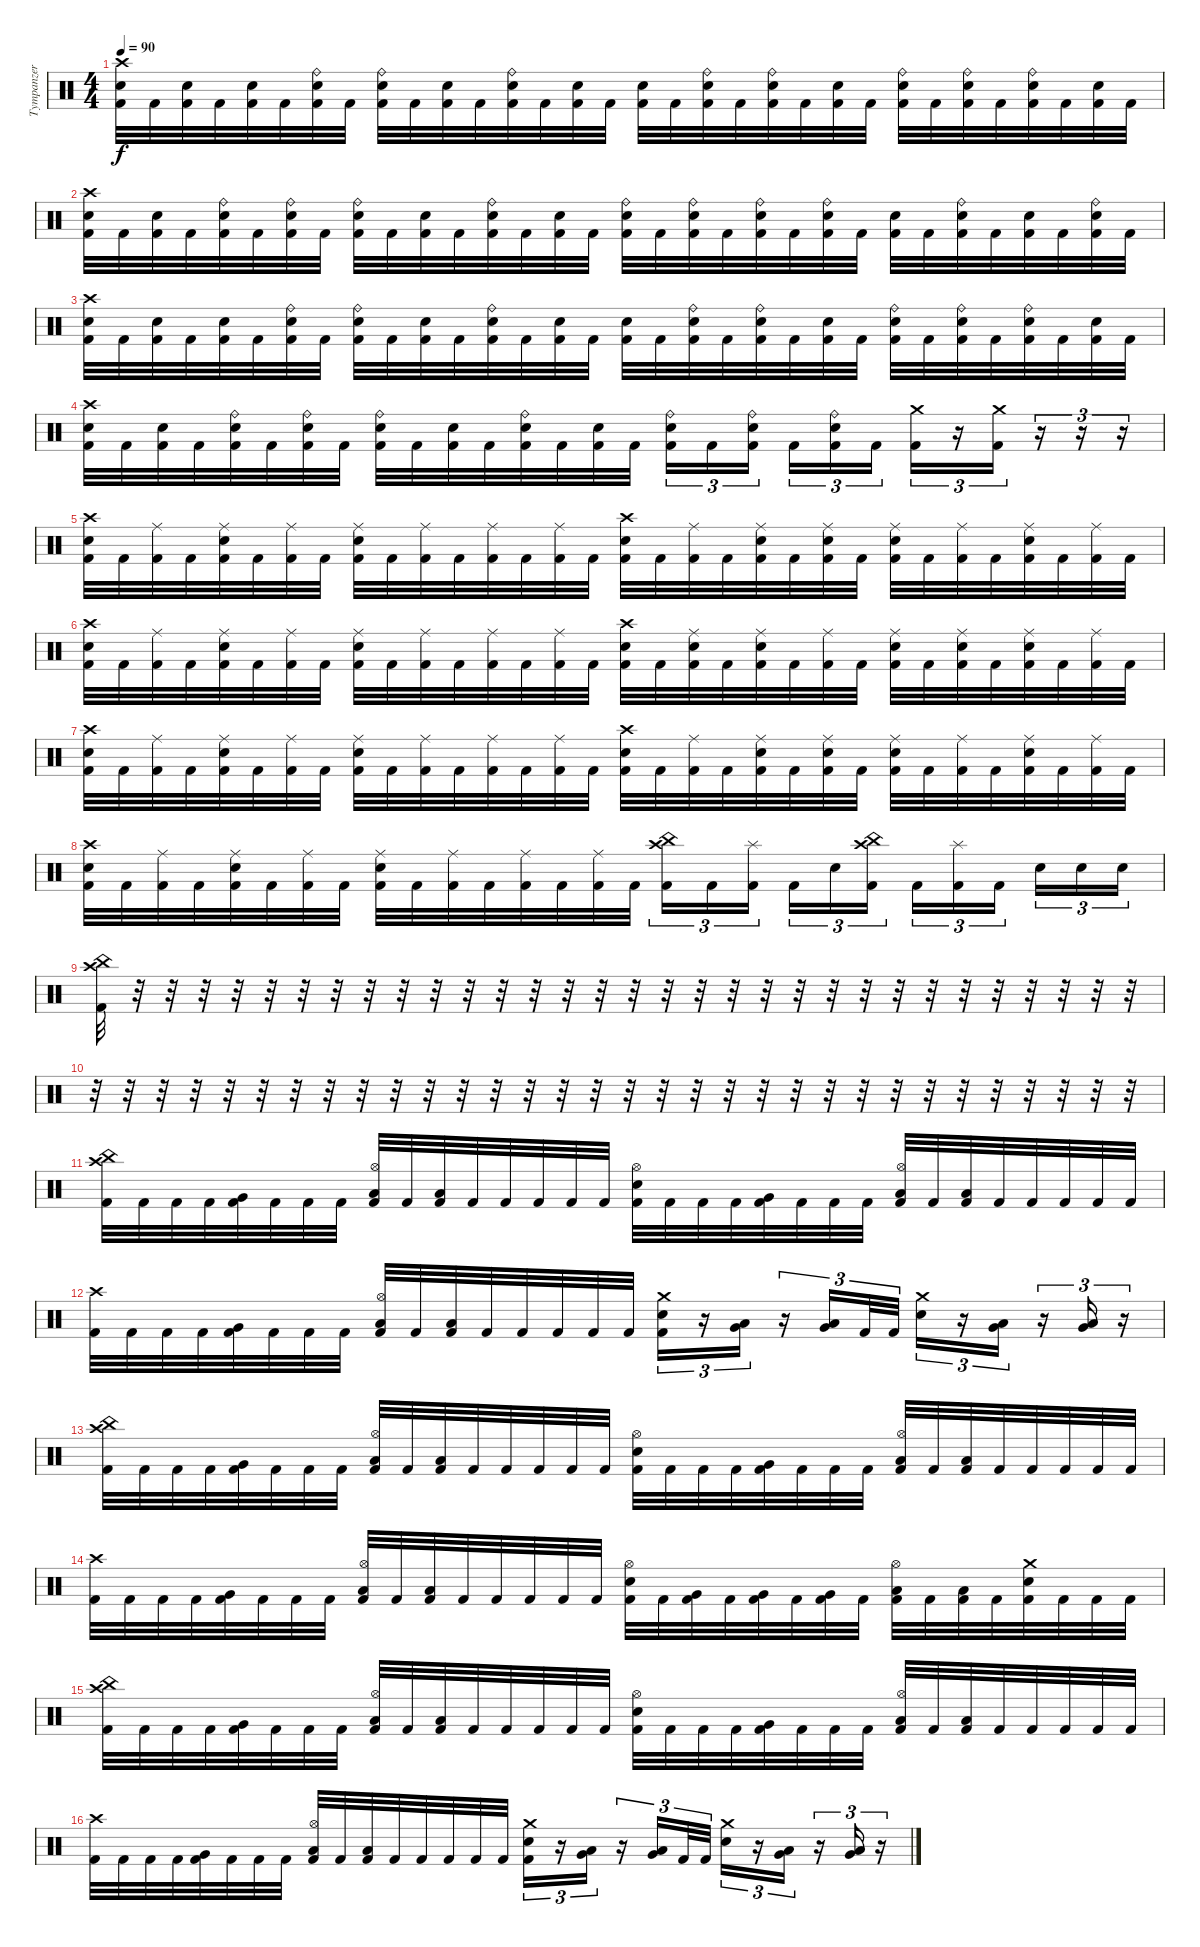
\track ("Tympanzer" "Tympanzer") {instrument percussion}
\staff {score}
\articulation defaults
\ts (4 4)
\tempo 90
\clef neutral
\ks c
("Crash high (hit)" "Electric Snare (hit)" "Kick (hit) 2").32{dy f} "Kick (hit) 2".32 ("Electric Snare (hit)" "Kick (hit) 2").32 "Kick (hit) 2".32 ("Electric Snare (hit)" "Kick (hit) 2").32 "Kick (hit) 2".32 ("Ride (bell)" "Electric Snare (hit)" "Kick (hit) 2").32 "Kick (hit) 2".32 ("Ride (bell)" "Electric Snare (hit)" "Kick (hit) 2").32 "Kick (hit) 2".32 ("Electric Snare (hit)" "Kick (hit) 2").32 "Kick (hit) 2".32 ("Ride (bell)" "Electric Snare (hit)" "Kick (hit) 2").32 "Kick (hit) 2".32 ("Electric Snare (hit)" "Kick (hit) 2").32 "Kick (hit) 2".32 ("Electric Snare (hit)" "Kick (hit) 2").32 "Kick (hit) 2".32 ("Ride (bell)" "Electric Snare (hit)" "Kick (hit) 2").32 "Kick (hit) 2".32 ("Ride (bell)" "Electric Snare (hit)" "Kick (hit) 2").32 "Kick (hit) 2".32 ("Electric Snare (hit)" "Kick (hit) 2").32 "Kick (hit) 2".32 ("Ride (bell)" "Electric Snare (hit)" "Kick (hit) 2").32 "Kick (hit) 2".32 ("Ride (bell)" "Electric Snare (hit)" "Kick (hit) 2").32 "Kick (hit) 2".32 ("Ride (bell)" "Electric Snare (hit)" "Kick (hit) 2").32 "Kick (hit) 2".32 ("Electric Snare (hit)" "Kick (hit) 2").32 "Kick (hit) 2".32 |
("Crash high (hit)" "Electric Snare (hit)" "Kick (hit) 2").32 "Kick (hit) 2".32 ("Electric Snare (hit)" "Kick (hit) 2").32 "Kick (hit) 2".32 ("Ride (bell)" "Electric Snare (hit)" "Kick (hit) 2").32 "Kick (hit) 2".32 ("Ride (bell)" "Electric Snare (hit)" "Kick (hit) 2").32 "Kick (hit) 2".32 ("Ride (bell)" "Electric Snare (hit)" "Kick (hit) 2").32 "Kick (hit) 2".32 ("Electric Snare (hit)" "Kick (hit) 2").32 "Kick (hit) 2".32 ("Ride (bell)" "Electric Snare (hit)" "Kick (hit) 2").32 "Kick (hit) 2".32 ("Electric Snare (hit)" "Kick (hit) 2").32 "Kick (hit) 2".32 ("Ride (bell)" "Electric Snare (hit)" "Kick (hit) 2").32 "Kick (hit) 2".32 ("Ride (bell)" "Electric Snare (hit)" "Kick (hit) 2").32 "Kick (hit) 2".32 ("Ride (bell)" "Electric Snare (hit)" "Kick (hit) 2").32 "Kick (hit) 2".32 ("Ride (bell)" "Electric Snare (hit)" "Kick (hit) 2").32 "Kick (hit) 2".32 ("Electric Snare (hit)" "Kick (hit) 2").32 "Kick (hit) 2".32 ("Ride (bell)" "Electric Snare (hit)" "Kick (hit) 2").32 "Kick (hit) 2".32 ("Electric Snare (hit)" "Kick (hit) 2").32 "Kick (hit) 2".32 ("Ride (bell)" "Electric Snare (hit)" "Kick (hit) 2").32 "Kick (hit) 2".32 |
("Crash high (hit)" "Electric Snare (hit)" "Kick (hit) 2").32 "Kick (hit) 2".32 ("Electric Snare (hit)" "Kick (hit) 2").32 "Kick (hit) 2".32 ("Electric Snare (hit)" "Kick (hit) 2").32 "Kick (hit) 2".32 ("Ride (bell)" "Electric Snare (hit)" "Kick (hit) 2").32 "Kick (hit) 2".32 ("Ride (bell)" "Electric Snare (hit)" "Kick (hit) 2").32 "Kick (hit) 2".32 ("Electric Snare (hit)" "Kick (hit) 2").32 "Kick (hit) 2".32 ("Ride (bell)" "Electric Snare (hit)" "Kick (hit) 2").32 "Kick (hit) 2".32 ("Electric Snare (hit)" "Kick (hit) 2").32 "Kick (hit) 2".32 ("Electric Snare (hit)" "Kick (hit) 2").32 "Kick (hit) 2".32 ("Ride (bell)" "Electric Snare (hit)" "Kick (hit) 2").32 "Kick (hit) 2".32 ("Ride (bell)" "Electric Snare (hit)" "Kick (hit) 2").32 "Kick (hit) 2".32 ("Electric Snare (hit)" "Kick (hit) 2").32 "Kick (hit) 2".32 ("Ride (bell)" "Electric Snare (hit)" "Kick (hit) 2").32 "Kick (hit) 2".32 ("Ride (bell)" "Electric Snare (hit)" "Kick (hit) 2").32 "Kick (hit) 2".32 ("Ride (bell)" "Electric Snare (hit)" "Kick (hit) 2").32 "Kick (hit) 2".32 ("Electric Snare (hit)" "Kick (hit) 2").32 "Kick (hit) 2".32 |
("Crash high (hit)" "Electric Snare (hit)" "Kick (hit) 2").32 "Kick (hit) 2".32 ("Electric Snare (hit)" "Kick (hit) 2").32 "Kick (hit) 2".32 ("Ride (bell)" "Electric Snare (hit)" "Kick (hit) 2").32 "Kick (hit) 2".32 ("Ride (bell)" "Electric Snare (hit)" "Kick (hit) 2").32 "Kick (hit) 2".32 ("Ride (bell)" "Electric Snare (hit)" "Kick (hit) 2").32 "Kick (hit) 2".32 ("Electric Snare (hit)" "Kick (hit) 2").32 "Kick (hit) 2".32 ("Ride (bell)" "Electric Snare (hit)" "Kick (hit) 2").32 "Kick (hit) 2".32 ("Electric Snare (hit)" "Kick (hit) 2").32 "Kick (hit) 2".32 ("Ride (bell)" "Electric Snare (hit)" "Kick (hit) 2").16{tu (3 2)} "Kick (hit) 2".16{tu (3 2)} ("Ride (bell)" "Electric Snare (hit)" "Kick (hit) 2").16{tu (3 2) beam splitsecondary} "Kick (hit) 2".16{tu (3 2)} ("Ride (bell)" "Electric Snare (hit)" "Kick (hit) 2").16{tu (3 2)} "Kick (hit) 2".16{tu (3 2)} ("Crash medium (hit)" "Kick (hit) 2").16{tu (3 2)} r.16{tu (3 2)} ("Crash medium (hit)" "Kick (hit) 2").16{tu (3 2)} r.16{tu (3 2)} r.16{tu (3 2)} r.16{tu (3 2)} |
("Crash high (hit)" "Electric Snare (hit)" "Kick (hit) 2").32 "Kick (hit) 2".32 ("Ride (middle)" "Kick (hit) 2").32 "Kick (hit) 2".32 ("Ride (middle)" "Electric Snare (hit)" "Kick (hit) 2").32 "Kick (hit) 2".32 ("Ride (middle)" "Kick (hit) 2").32 "Kick (hit) 2".32 ("Ride (middle)" "Electric Snare (hit)" "Kick (hit) 2").32 "Kick (hit) 2".32 ("Ride (middle)" "Kick (hit) 2").32 "Kick (hit) 2".32 ("Ride (middle)" "Kick (hit) 2").32 "Kick (hit) 2".32 ("Ride (middle)" "Kick (hit) 2").32 "Kick (hit) 2".32 ("Crash high (hit)" "Electric Snare (hit)" "Kick (hit) 2").32 "Kick (hit) 2".32 ("Ride (middle)" "Kick (hit) 2").32 "Kick (hit) 2".32 ("Ride (middle)" "Electric Snare (hit)" "Kick (hit) 2").32 "Kick (hit) 2".32 ("Ride (middle)" "Electric Snare (hit)" "Kick (hit) 2").32 "Kick (hit) 2".32 ("Ride (middle)" "Electric Snare (hit)" "Kick (hit) 2").32 "Kick (hit) 2".32 ("Ride (middle)" "Kick (hit) 2").32 "Kick (hit) 2".32 ("Ride (middle)" "Electric Snare (hit)" "Kick (hit) 2").32 "Kick (hit) 2".32 ("Ride (middle)" "Kick (hit) 2").32 "Kick (hit) 2".32 |
("Crash high (hit)" "Electric Snare (hit)" "Kick (hit) 2").32 "Kick (hit) 2".32 ("Ride (middle)" "Kick (hit) 2").32 "Kick (hit) 2".32 ("Ride (middle)" "Electric Snare (hit)" "Kick (hit) 2").32 "Kick (hit) 2".32 ("Ride (middle)" "Kick (hit) 2").32 "Kick (hit) 2".32 ("Ride (middle)" "Electric Snare (hit)" "Kick (hit) 2").32 "Kick (hit) 2".32 ("Ride (middle)" "Kick (hit) 2").32 "Kick (hit) 2".32 ("Ride (middle)" "Kick (hit) 2").32 "Kick (hit) 2".32 ("Ride (middle)" "Kick (hit) 2").32 "Kick (hit) 2".32 ("Crash high (hit)" "Electric Snare (hit)" "Kick (hit) 2").32 "Kick (hit) 2".32 ("Ride (middle)" "Electric Snare (hit)" "Kick (hit) 2").32 "Kick (hit) 2".32 ("Ride (middle)" "Electric Snare (hit)" "Kick (hit) 2").32 "Kick (hit) 2".32 ("Ride (middle)" "Kick (hit) 2").32 "Kick (hit) 2".32 ("Ride (middle)" "Electric Snare (hit)" "Kick (hit) 2").32 "Kick (hit) 2".32 ("Ride (middle)" "Electric Snare (hit)" "Kick (hit) 2").32 "Kick (hit) 2".32 ("Ride (middle)" "Electric Snare (hit)" "Kick (hit) 2").32 "Kick (hit) 2".32 ("Ride (middle)" "Kick (hit) 2").32 "Kick (hit) 2".32 |
("Crash high (hit)" "Electric Snare (hit)" "Kick (hit) 2").32 "Kick (hit) 2".32 ("Ride (middle)" "Kick (hit) 2").32 "Kick (hit) 2".32 ("Ride (middle)" "Electric Snare (hit)" "Kick (hit) 2").32 "Kick (hit) 2".32 ("Ride (middle)" "Kick (hit) 2").32 "Kick (hit) 2".32 ("Ride (middle)" "Electric Snare (hit)" "Kick (hit) 2").32 "Kick (hit) 2".32 ("Ride (middle)" "Kick (hit) 2").32 "Kick (hit) 2".32 ("Ride (middle)" "Kick (hit) 2").32 "Kick (hit) 2".32 ("Ride (middle)" "Kick (hit) 2").32 "Kick (hit) 2".32 ("Crash high (hit)" "Electric Snare (hit)" "Kick (hit) 2").32 "Kick (hit) 2".32 ("Ride (middle)" "Kick (hit) 2").32 "Kick (hit) 2".32 ("Ride (middle)" "Electric Snare (hit)" "Kick (hit) 2").32 "Kick (hit) 2".32 ("Ride (middle)" "Electric Snare (hit)" "Kick (hit) 2").32 "Kick (hit) 2".32 ("Ride (middle)" "Electric Snare (hit)" "Kick (hit) 2").32 "Kick (hit) 2".32 ("Ride (middle)" "Kick (hit) 2").32 "Kick (hit) 2".32 ("Ride (middle)" "Electric Snare (hit)" "Kick (hit) 2").32 "Kick (hit) 2".32 ("Ride (middle)" "Kick (hit) 2").32 "Kick (hit) 2".32 |
("Crash high (hit)" "Electric Snare (hit)" "Kick (hit) 2").32 "Kick (hit) 2".32 ("Ride (middle)" "Kick (hit) 2").32 "Kick (hit) 2".32 ("Ride (middle)" "Electric Snare (hit)" "Kick (hit) 2").32 "Kick (hit) 2".32 ("Ride (middle)" "Kick (hit) 2").32 "Kick (hit) 2".32 ("Ride (middle)" "Electric Snare (hit)" "Kick (hit) 2").32 "Kick (hit) 2".32 ("Ride (middle)" "Kick (hit) 2").32 "Kick (hit) 2".32 ("Ride (middle)" "Kick (hit) 2").32 "Kick (hit) 2".32 ("Ride (middle)" "Kick (hit) 2").32 "Kick (hit) 2".32 ("China (hit)" "Crash high (hit)" "Kick (hit) 2").16{tu (3 2)} "Kick (hit) 2".16{tu (3 2)} ("Splash (hit)" "Kick (hit) 2").16{tu (3 2) beam splitsecondary} "Kick (hit) 2".16{tu (3 2)} "Electric Snare (hit)".16{tu (3 2)} ("China (hit)" "Crash high (hit)" "Kick (hit) 2").16{tu (3 2)} "Kick (hit) 2".16{tu (3 2)} ("Splash (hit)" "Kick (hit) 2").16{tu (3 2)} "Kick (hit) 2".16{tu (3 2) beam splitsecondary} "Electric Snare (hit)".16{tu (3 2)} "Electric Snare (hit)".16{tu (3 2)} "Electric Snare (hit)".16{tu (3 2)} |
("China (hit)" "Crash high (hit)" "Kick (hit) 2").32 r.32 r.32 r.32 r.32 r.32 r.32 r.32 r.32 r.32 r.32 r.32 r.32 r.32 r.32 r.32 r.32 r.32 r.32 r.32 r.32 r.32 r.32 r.32 r.32 r.32 r.32 r.32 r.32 r.32 r.32 r.32 |
r.32 r.32 r.32 r.32 r.32 r.32 r.32 r.32 r.32 r.32 r.32 r.32 r.32 r.32 r.32 r.32 r.32 r.32 r.32 r.32 r.32 r.32 r.32 r.32 r.32 r.32 r.32 r.32 r.32 r.32 r.32 r.32 |
("China (hit)" "Crash high (hit)" "Kick (hit) 2").32 "Kick (hit) 2".32 "Kick (hit) 2".32 "Kick (hit) 2".32 ("Very Low Tom (hit)" "Kick (hit) 2").32 "Kick (hit) 2".32 "Kick (hit) 2".32 "Kick (hit) 2".32 ("Hi-Hat (open)" "Low Floor Tom (hit)" "Kick (hit) 2").32 "Kick (hit) 2".32 ("Low Floor Tom (hit)" "Kick (hit) 2").32 "Kick (hit) 2".32 "Kick (hit) 2".32 "Kick (hit) 2".32 "Kick (hit) 2".32 "Kick (hit) 2".32 ("Hi-Hat (open)" "Electric Snare (hit)" "Kick (hit) 2").32 "Kick (hit) 2".32 "Kick (hit) 2".32 "Kick (hit) 2".32 ("Very Low Tom (hit)" "Kick (hit) 2").32 "Kick (hit) 2".32 "Kick (hit) 2".32 "Kick (hit) 2".32 ("Hi-Hat (open)" "Low Floor Tom (hit)" "Kick (hit) 2").32 "Kick (hit) 2".32 ("Low Floor Tom (hit)" "Kick (hit) 2").32 "Kick (hit) 2".32 "Kick (hit) 2".32 "Kick (hit) 2".32 "Kick (hit) 2".32 "Kick (hit) 2".32 |
("Crash high (hit)" "Kick (hit) 2").32 "Kick (hit) 2".32 "Kick (hit) 2".32 "Kick (hit) 2".32 ("Very Low Tom (hit)" "Kick (hit) 2").32 "Kick (hit) 2".32 "Kick (hit) 2".32 "Kick (hit) 2".32 ("Hi-Hat (open)" "Low Floor Tom (hit)" "Kick (hit) 2").32 "Kick (hit) 2".32 ("Low Floor Tom (hit)" "Kick (hit) 2").32 "Kick (hit) 2".32 "Kick (hit) 2".32 "Kick (hit) 2".32 "Kick (hit) 2".32 "Kick (hit) 2".32 ("Crash medium (hit)" "Electric Snare (hit)" "Kick (hit) 2").16{tu (3 2)} r.16{tu (3 2)} ("Very Low Tom (hit)" "Low Floor Tom (hit)").16{tu (3 2)} r.16{tu (3 2)} ("Very Low Tom (hit)" "Low Floor Tom (hit)").16{tu (3 2)} "Kick (hit) 2".32{tu (3 2)} "Kick (hit) 2".32{tu (3 2)} ("Crash medium (hit)" "Electric Snare (hit)").16{tu (3 2)} r.16{tu (3 2)} ("Very Low Tom (hit)" "Low Floor Tom (hit)").16{tu (3 2)} r.16{tu (3 2)} ("Very Low Tom (hit)" "Low Floor Tom (hit)").16{tu (3 2)} r.16{tu (3 2)} |
("China (hit)" "Crash high (hit)" "Kick (hit) 2").32 "Kick (hit) 2".32 "Kick (hit) 2".32 "Kick (hit) 2".32 ("Very Low Tom (hit)" "Kick (hit) 2").32 "Kick (hit) 2".32 "Kick (hit) 2".32 "Kick (hit) 2".32 ("Hi-Hat (open)" "Low Floor Tom (hit)" "Kick (hit) 2").32 "Kick (hit) 2".32 ("Low Floor Tom (hit)" "Kick (hit) 2").32 "Kick (hit) 2".32 "Kick (hit) 2".32 "Kick (hit) 2".32 "Kick (hit) 2".32 "Kick (hit) 2".32 ("Hi-Hat (open)" "Electric Snare (hit)" "Kick (hit) 2").32 "Kick (hit) 2".32 "Kick (hit) 2".32 "Kick (hit) 2".32 ("Very Low Tom (hit)" "Kick (hit) 2").32 "Kick (hit) 2".32 "Kick (hit) 2".32 "Kick (hit) 2".32 ("Hi-Hat (open)" "Low Floor Tom (hit)" "Kick (hit) 2").32 "Kick (hit) 2".32 ("Low Floor Tom (hit)" "Kick (hit) 2").32 "Kick (hit) 2".32 "Kick (hit) 2".32 "Kick (hit) 2".32 "Kick (hit) 2".32 "Kick (hit) 2".32 |
("Crash high (hit)" "Kick (hit) 2").32 "Kick (hit) 2".32 "Kick (hit) 2".32 "Kick (hit) 2".32 ("Very Low Tom (hit)" "Kick (hit) 2").32 "Kick (hit) 2".32 "Kick (hit) 2".32 "Kick (hit) 2".32 ("Hi-Hat (open)" "Low Floor Tom (hit)" "Kick (hit) 2").32 "Kick (hit) 2".32 ("Low Floor Tom (hit)" "Kick (hit) 2").32 "Kick (hit) 2".32 "Kick (hit) 2".32 "Kick (hit) 2".32 "Kick (hit) 2".32 "Kick (hit) 2".32 ("Hi-Hat (open)" "Electric Snare (hit)" "Kick (hit) 2").32 "Kick (hit) 2".32 ("Very Low Tom (hit)" "Kick (hit) 2").32 "Kick (hit) 2".32 ("Very Low Tom (hit)" "Kick (hit) 2").32 "Kick (hit) 2".32 ("Very Low Tom (hit)" "Kick (hit) 2").32 "Kick (hit) 2".32 ("Hi-Hat (open)" "Low Floor Tom (hit)" "Kick (hit) 2").32 "Kick (hit) 2".32 ("Low Floor Tom (hit)" "Kick (hit) 2").32 "Kick (hit) 2".32 ("Crash medium (hit)" "Electric Snare (hit)" "Kick (hit) 2").32 "Kick (hit) 2".32 "Kick (hit) 2".32 "Kick (hit) 2".32 |
("China (hit)" "Crash high (hit)" "Kick (hit) 2").32 "Kick (hit) 2".32 "Kick (hit) 2".32 "Kick (hit) 2".32 ("Very Low Tom (hit)" "Kick (hit) 2").32 "Kick (hit) 2".32 "Kick (hit) 2".32 "Kick (hit) 2".32 ("Hi-Hat (open)" "Low Floor Tom (hit)" "Kick (hit) 2").32 "Kick (hit) 2".32 ("Low Floor Tom (hit)" "Kick (hit) 2").32 "Kick (hit) 2".32 "Kick (hit) 2".32 "Kick (hit) 2".32 "Kick (hit) 2".32 "Kick (hit) 2".32 ("Hi-Hat (open)" "Electric Snare (hit)" "Kick (hit) 2").32 "Kick (hit) 2".32 "Kick (hit) 2".32 "Kick (hit) 2".32 ("Very Low Tom (hit)" "Kick (hit) 2").32 "Kick (hit) 2".32 "Kick (hit) 2".32 "Kick (hit) 2".32 ("Hi-Hat (open)" "Low Floor Tom (hit)" "Kick (hit) 2").32 "Kick (hit) 2".32 ("Low Floor Tom (hit)" "Kick (hit) 2").32 "Kick (hit) 2".32 "Kick (hit) 2".32 "Kick (hit) 2".32 "Kick (hit) 2".32 "Kick (hit) 2".32 |
("Crash high (hit)" "Kick (hit) 2").32 "Kick (hit) 2".32 "Kick (hit) 2".32 "Kick (hit) 2".32 ("Very Low Tom (hit)" "Kick (hit) 2").32 "Kick (hit) 2".32 "Kick (hit) 2".32 "Kick (hit) 2".32 ("Hi-Hat (open)" "Low Floor Tom (hit)" "Kick (hit) 2").32 "Kick (hit) 2".32 ("Low Floor Tom (hit)" "Kick (hit) 2").32 "Kick (hit) 2".32 "Kick (hit) 2".32 "Kick (hit) 2".32 "Kick (hit) 2".32 "Kick (hit) 2".32 ("Crash medium (hit)" "Electric Snare (hit)" "Kick (hit) 2").16{tu (3 2)} r.16{tu (3 2)} ("Very Low Tom (hit)" "Low Floor Tom (hit)").16{tu (3 2)} r.16{tu (3 2)} ("Very Low Tom (hit)" "Low Floor Tom (hit)").16{tu (3 2)} "Kick (hit) 2".32{tu (3 2)} "Kick (hit) 2".32{tu (3 2)} ("Crash medium (hit)" "Electric Snare (hit)").16{tu (3 2)} r.16{tu (3 2)} ("Very Low Tom (hit)" "Low Floor Tom (hit)").16{tu (3 2)} r.16{tu (3 2)} ("Very Low Tom (hit)" "Low Floor Tom (hit)").16{tu (3 2)} r.16{tu (3 2)}
